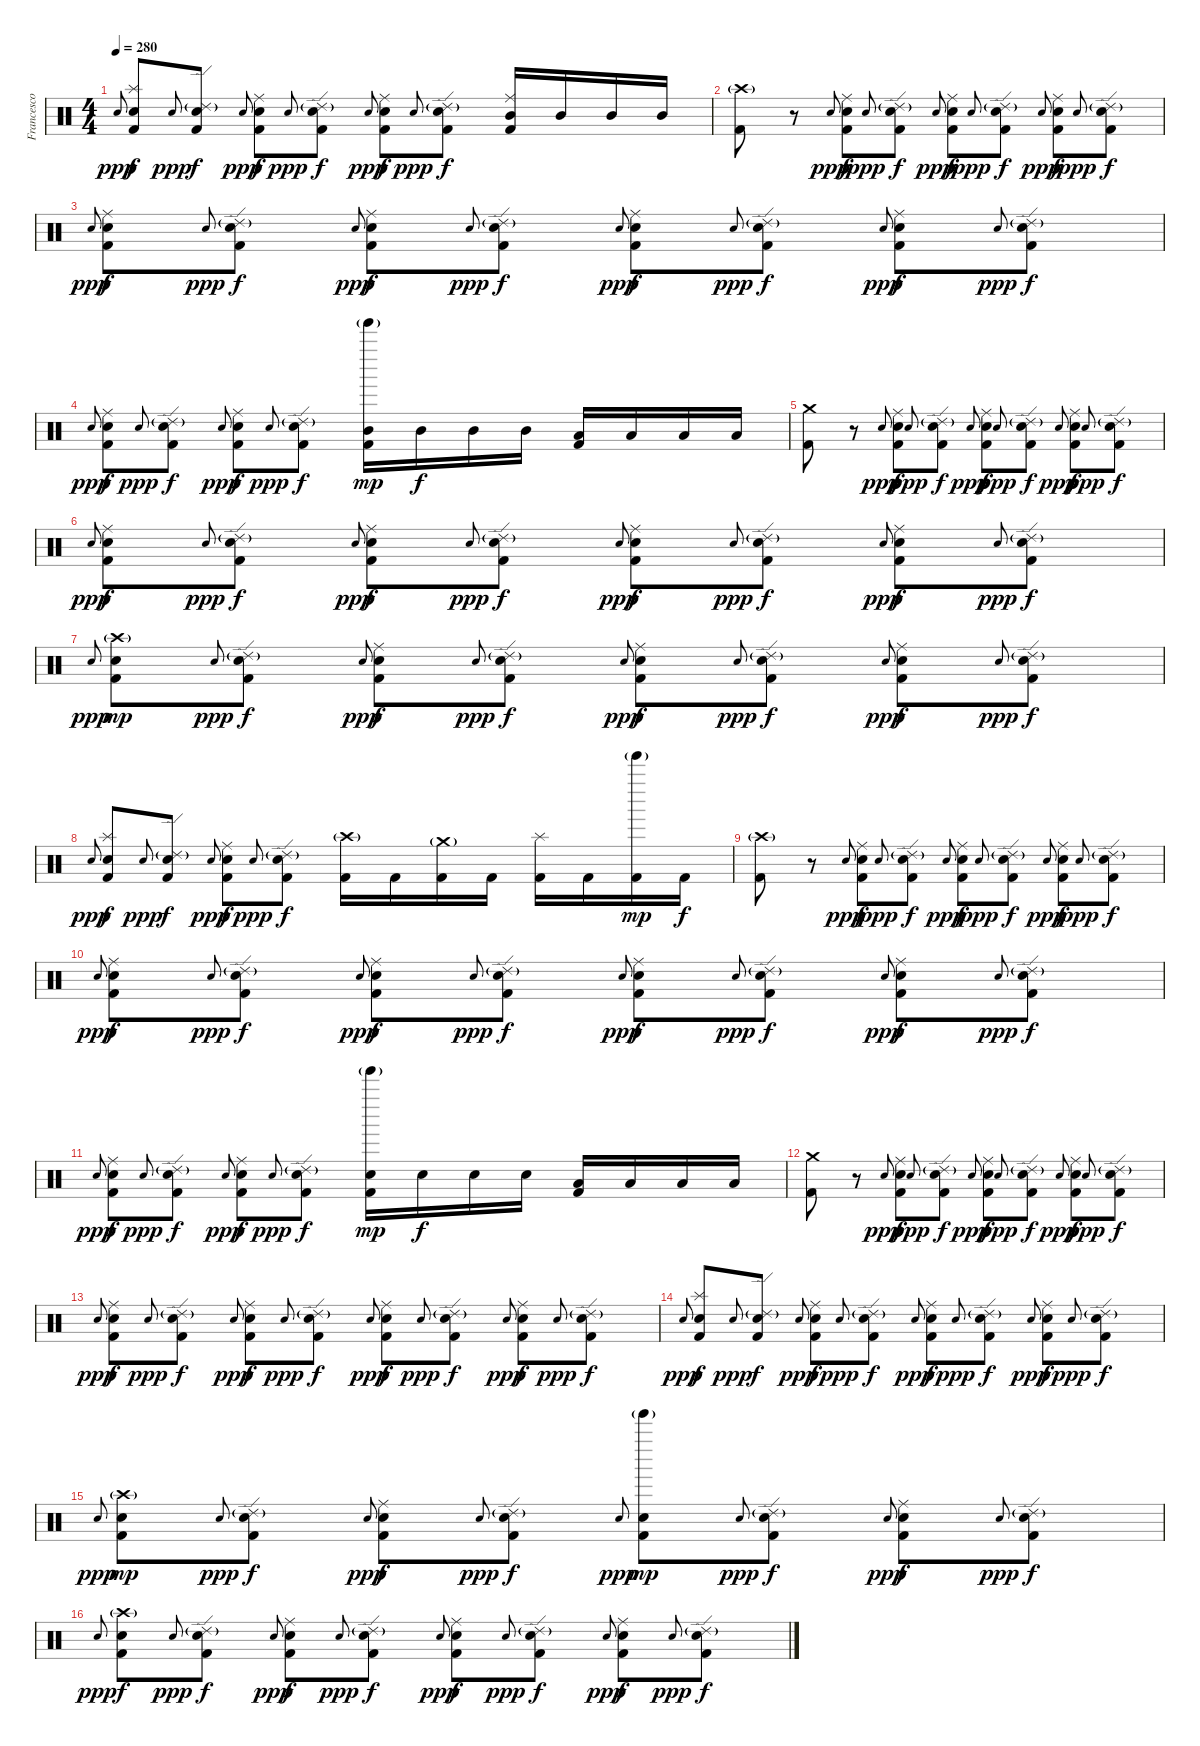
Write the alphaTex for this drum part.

\track ("Francesco Ferrini" "Francesco ") {instrument percussion}
\staff {score}
\articulation defaults
\ts (4 4)
\tempo 280
\clef neutral
\ks c "Electric Snare (hit)"{h}.8{gr onbeat dy ppp}
("Splash (hit)" "Electric Snare (hit)" "Kick (hit) 2").8{dy f} "Electric Snare (hit)"{h}.8{gr onbeat dy ppp} ("Ride (edge) 2"{g} "Electric Snare (hit)" "Kick (hit) 2").8{dy f} "Electric Snare (hit)"{h}.8{gr onbeat dy ppp} ("Ride (middle)" "Electric Snare (hit)" "Kick (hit) 2").8{dy f} "Electric Snare (hit)"{h}.8{gr onbeat dy ppp} ("Ride (edge) 2"{g} "Electric Snare (hit)" "Kick (hit) 2").8{dy f} "Electric Snare (hit)"{h}.8{gr onbeat dy ppp} ("Ride (middle)" "Electric Snare (hit)" "Kick (hit) 2").8{dy f} "Electric Snare (hit)"{h}.8{gr onbeat dy ppp} ("Ride (edge) 2"{g} "Electric Snare (hit)" "Kick (hit) 2").8{dy f} ("Ride (middle)" "Mid Tom (hit)" "Kick (hit) 2").16 "Mid Tom (hit)".16 "Mid Tom (hit)".16 "Mid Tom (hit)".16 |
("Crash high (hit)"{g} "Kick (hit) 2").8 r.8 "Electric Snare (hit)"{h}.8{gr onbeat dy ppp} ("Ride (middle)" "Electric Snare (hit)" "Kick (hit) 2").8{dy f} "Electric Snare (hit)"{h}.8{gr onbeat dy ppp} ("Ride (edge) 2"{g} "Electric Snare (hit)" "Kick (hit) 2").8{dy f} "Electric Snare (hit)"{h}.8{gr onbeat dy ppp} ("Ride (middle)" "Electric Snare (hit)" "Kick (hit) 2").8{dy f} "Electric Snare (hit)"{h}.8{gr onbeat dy ppp} ("Ride (edge) 2"{g} "Electric Snare (hit)" "Kick (hit) 2").8{dy f} "Electric Snare (hit)"{h}.8{gr onbeat dy ppp} ("Ride (middle)" "Electric Snare (hit)" "Kick (hit) 2").8{dy f} "Electric Snare (hit)"{h}.8{gr onbeat dy ppp} ("Ride (edge) 2"{g} "Electric Snare (hit)" "Kick (hit) 2").8{dy f} |
"Electric Snare (hit)"{h}.8{gr onbeat dy ppp} ("Ride (middle)" "Electric Snare (hit)" "Kick (hit) 2").8{dy f} "Electric Snare (hit)"{h}.8{gr onbeat dy ppp} ("Ride (edge) 2"{g} "Electric Snare (hit)" "Kick (hit) 2").8{dy f} "Electric Snare (hit)"{h}.8{gr onbeat dy ppp} ("Ride (middle)" "Electric Snare (hit)" "Kick (hit) 2").8{dy f} "Electric Snare (hit)"{h}.8{gr onbeat dy ppp} ("Ride (edge) 2"{g} "Electric Snare (hit)" "Kick (hit) 2").8{dy f} "Electric Snare (hit)"{h}.8{gr onbeat dy ppp} ("Ride (middle)" "Electric Snare (hit)" "Kick (hit) 2").8{dy f} "Electric Snare (hit)"{h}.8{gr onbeat dy ppp} ("Ride (edge) 2"{g} "Electric Snare (hit)" "Kick (hit) 2").8{dy f} "Electric Snare (hit)"{h}.8{gr onbeat dy ppp} ("Ride (middle)" "Electric Snare (hit)" "Kick (hit) 2").8{dy f} "Electric Snare (hit)"{h}.8{gr onbeat dy ppp} ("Ride (edge) 2"{g} "Electric Snare (hit)" "Kick (hit) 2").8{dy f} |
"Electric Snare (hit)"{h}.8{gr onbeat dy ppp} ("Ride (middle)" "Electric Snare (hit)" "Kick (hit) 2").8{dy f} "Electric Snare (hit)"{h}.8{gr onbeat dy ppp} ("Ride (edge) 2"{g} "Electric Snare (hit)" "Kick (hit) 2").8{dy f} "Electric Snare (hit)"{h}.8{gr onbeat dy ppp} ("Ride (middle)" "Electric Snare (hit)" "Kick (hit) 2").8{dy f} "Electric Snare (hit)"{h}.8{gr onbeat dy ppp} ("Ride (edge) 2"{g} "Electric Snare (hit)" "Kick (hit) 2").8{dy f} ("Tinkle Bell (hit)"{g} "Mid Tom (hit)" "Kick (hit) 2").16{dy mp} "Mid Tom (hit)".16{dy f} "Mid Tom (hit)".16 "Mid Tom (hit)".16 ("Low Tom (hit)" "Kick (hit) 2").16 "Low Tom (hit)".16 "Low Tom (hit)".16 "Low Tom (hit)".16 |
("Crash medium (hit)" "Kick (hit) 2").8 r.8 "Electric Snare (hit)"{h}.8{gr onbeat dy ppp} ("Ride (middle)" "Electric Snare (hit)" "Kick (hit) 2").8{dy f} "Electric Snare (hit)"{h}.8{gr onbeat dy ppp} ("Ride (edge) 2"{g} "Electric Snare (hit)" "Kick (hit) 2").8{dy f} "Electric Snare (hit)"{h}.8{gr onbeat dy ppp} ("Ride (middle)" "Electric Snare (hit)" "Kick (hit) 2").8{dy f} "Electric Snare (hit)"{h}.8{gr onbeat dy ppp} ("Ride (edge) 2"{g} "Electric Snare (hit)" "Kick (hit) 2").8{dy f} "Electric Snare (hit)"{h}.8{gr onbeat dy ppp} ("Ride (middle)" "Electric Snare (hit)" "Kick (hit) 2").8{dy f} "Electric Snare (hit)"{h}.8{gr onbeat dy ppp} ("Ride (edge) 2"{g} "Electric Snare (hit)" "Kick (hit) 2").8{dy f} |
"Electric Snare (hit)"{h}.8{gr onbeat dy ppp} ("Ride (middle)" "Electric Snare (hit)" "Kick (hit) 2").8{dy f} "Electric Snare (hit)"{h}.8{gr onbeat dy ppp} ("Ride (edge) 2"{g} "Electric Snare (hit)" "Kick (hit) 2").8{dy f} "Electric Snare (hit)"{h}.8{gr onbeat dy ppp} ("Ride (middle)" "Electric Snare (hit)" "Kick (hit) 2").8{dy f} "Electric Snare (hit)"{h}.8{gr onbeat dy ppp} ("Ride (edge) 2"{g} "Electric Snare (hit)" "Kick (hit) 2").8{dy f} "Electric Snare (hit)"{h}.8{gr onbeat dy ppp} ("Ride (middle)" "Electric Snare (hit)" "Kick (hit) 2").8{dy f} "Electric Snare (hit)"{h}.8{gr onbeat dy ppp} ("Ride (edge) 2"{g} "Electric Snare (hit)" "Kick (hit) 2").8{dy f} "Electric Snare (hit)"{h}.8{gr onbeat dy ppp} ("Ride (middle)" "Electric Snare (hit)" "Kick (hit) 2").8{dy f} "Electric Snare (hit)"{h}.8{gr onbeat dy ppp} ("Ride (edge) 2"{g} "Electric Snare (hit)" "Kick (hit) 2").8{dy f} |
"Electric Snare (hit)"{h}.8{gr onbeat dy ppp} ("Crash high (hit)"{g} "Electric Snare (hit)" "Kick (hit) 2").8{dy mp} "Electric Snare (hit)"{h}.8{gr onbeat dy ppp} ("Ride (edge) 2"{g} "Electric Snare (hit)" "Kick (hit) 2").8{dy f} "Electric Snare (hit)"{h}.8{gr onbeat dy ppp} ("Ride (middle)" "Electric Snare (hit)" "Kick (hit) 2").8{dy f} "Electric Snare (hit)"{h}.8{gr onbeat dy ppp} ("Ride (edge) 2"{g} "Electric Snare (hit)" "Kick (hit) 2").8{dy f} "Electric Snare (hit)"{h}.8{gr onbeat dy ppp} ("Ride (middle)" "Electric Snare (hit)" "Kick (hit) 2").8{dy f} "Electric Snare (hit)"{h}.8{gr onbeat dy ppp} ("Ride (edge) 2"{g} "Electric Snare (hit)" "Kick (hit) 2").8{dy f} "Electric Snare (hit)"{h}.8{gr onbeat dy ppp} ("Ride (middle)" "Electric Snare (hit)" "Kick (hit) 2").8{dy f} "Electric Snare (hit)"{h}.8{gr onbeat dy ppp} ("Ride (edge) 2"{g} "Electric Snare (hit)" "Kick (hit) 2").8{dy f} |
"Electric Snare (hit)"{h}.8{gr onbeat dy ppp} ("Splash (hit)" "Electric Snare (hit)" "Kick (hit) 2").8{dy f} "Electric Snare (hit)"{h}.8{gr onbeat dy ppp} ("Ride (edge) 2"{g} "Electric Snare (hit)" "Kick (hit) 2").8{dy f} "Electric Snare (hit)"{h}.8{gr onbeat dy ppp} ("Ride (middle)" "Electric Snare (hit)" "Kick (hit) 2").8{dy f} "Electric Snare (hit)"{h}.8{gr onbeat dy ppp} ("Ride (edge) 2"{g} "Electric Snare (hit)" "Kick (hit) 2").8{dy f} ("Crash high (hit)"{g} "Kick (hit) 2").16 "Kick (hit) 2".16 ("Crash medium (hit)"{g} "Kick (hit) 2").16 "Kick (hit) 2".16 ("Splash (hit)" "Kick (hit) 2").16 "Kick (hit) 2".16 ("Tinkle Bell (hit)"{g} "Kick (hit) 2").16{dy mp} "Kick (hit) 2".16{dy f} |
("Crash high (hit)"{g} "Kick (hit) 2").8 r.8 "Electric Snare (hit)"{h}.8{gr onbeat dy ppp} ("Ride (middle)" "Electric Snare (hit)" "Kick (hit) 2").8{dy f} "Electric Snare (hit)"{h}.8{gr onbeat dy ppp} ("Ride (edge) 2"{g} "Electric Snare (hit)" "Kick (hit) 2").8{dy f} "Electric Snare (hit)"{h}.8{gr onbeat dy ppp} ("Ride (middle)" "Electric Snare (hit)" "Kick (hit) 2").8{dy f} "Electric Snare (hit)"{h}.8{gr onbeat dy ppp} ("Ride (edge) 2"{g} "Electric Snare (hit)" "Kick (hit) 2").8{dy f} "Electric Snare (hit)"{h}.8{gr onbeat dy ppp} ("Ride (middle)" "Electric Snare (hit)" "Kick (hit) 2").8{dy f} "Electric Snare (hit)"{h}.8{gr onbeat dy ppp} ("Ride (edge) 2"{g} "Electric Snare (hit)" "Kick (hit) 2").8{dy f} |
"Electric Snare (hit)"{h}.8{gr onbeat dy ppp} ("Ride (middle)" "Electric Snare (hit)" "Kick (hit) 2").8{dy f} "Electric Snare (hit)"{h}.8{gr onbeat dy ppp} ("Ride (edge) 2"{g} "Electric Snare (hit)" "Kick (hit) 2").8{dy f} "Electric Snare (hit)"{h}.8{gr onbeat dy ppp} ("Ride (middle)" "Electric Snare (hit)" "Kick (hit) 2").8{dy f} "Electric Snare (hit)"{h}.8{gr onbeat dy ppp} ("Ride (edge) 2"{g} "Electric Snare (hit)" "Kick (hit) 2").8{dy f} "Electric Snare (hit)"{h}.8{gr onbeat dy ppp} ("Ride (middle)" "Electric Snare (hit)" "Kick (hit) 2").8{dy f} "Electric Snare (hit)"{h}.8{gr onbeat dy ppp} ("Ride (edge) 2"{g} "Electric Snare (hit)" "Kick (hit) 2").8{dy f} "Electric Snare (hit)"{h}.8{gr onbeat dy ppp} ("Ride (middle)" "Electric Snare (hit)" "Kick (hit) 2").8{dy f} "Electric Snare (hit)"{h}.8{gr onbeat dy ppp} ("Ride (edge) 2"{g} "Electric Snare (hit)" "Kick (hit) 2").8{dy f} |
"Electric Snare (hit)"{h}.8{gr onbeat dy ppp} ("Ride (middle)" "Electric Snare (hit)" "Kick (hit) 2").8{dy f} "Electric Snare (hit)"{h}.8{gr onbeat dy ppp} ("Ride (edge) 2"{g} "Electric Snare (hit)" "Kick (hit) 2").8{dy f} "Electric Snare (hit)"{h}.8{gr onbeat dy ppp} ("Ride (middle)" "Electric Snare (hit)" "Kick (hit) 2").8{dy f} "Electric Snare (hit)"{h}.8{gr onbeat dy ppp} ("Ride (edge) 2"{g} "Electric Snare (hit)" "Kick (hit) 2").8{dy f} ("Tinkle Bell (hit)"{g} "Electric Snare (hit)" "Kick (hit) 2").16{dy mp} "Electric Snare (hit)".16{dy f} "Electric Snare (hit)".16 "Electric Snare (hit)".16 ("Low Tom (hit)" "Kick (hit) 2").16 "Low Tom (hit)".16 "Low Tom (hit)".16 "Low Tom (hit)".16 |
("Crash medium (hit)" "Kick (hit) 2").8 r.8 "Electric Snare (hit)"{h}.8{gr onbeat dy ppp} ("Ride (middle)" "Electric Snare (hit)" "Kick (hit) 2").8{dy f} "Electric Snare (hit)"{h}.8{gr onbeat dy ppp} ("Ride (edge) 2"{g} "Electric Snare (hit)" "Kick (hit) 2").8{dy f} "Electric Snare (hit)"{h}.8{gr onbeat dy ppp} ("Ride (middle)" "Electric Snare (hit)" "Kick (hit) 2").8{dy f} "Electric Snare (hit)"{h}.8{gr onbeat dy ppp} ("Ride (edge) 2"{g} "Electric Snare (hit)" "Kick (hit) 2").8{dy f} "Electric Snare (hit)"{h}.8{gr onbeat dy ppp} ("Ride (middle)" "Electric Snare (hit)" "Kick (hit) 2").8{dy f} "Electric Snare (hit)"{h}.8{gr onbeat dy ppp} ("Ride (edge) 2"{g} "Electric Snare (hit)" "Kick (hit) 2").8{dy f} |
"Electric Snare (hit)"{h}.8{gr onbeat dy ppp} ("Ride (middle)" "Electric Snare (hit)" "Kick (hit) 2").8{dy f} "Electric Snare (hit)"{h}.8{gr onbeat dy ppp} ("Ride (edge) 2"{g} "Electric Snare (hit)" "Kick (hit) 2").8{dy f} "Electric Snare (hit)"{h}.8{gr onbeat dy ppp} ("Ride (middle)" "Electric Snare (hit)" "Kick (hit) 2").8{dy f} "Electric Snare (hit)"{h}.8{gr onbeat dy ppp} ("Ride (edge) 2"{g} "Electric Snare (hit)" "Kick (hit) 2").8{dy f} "Electric Snare (hit)"{h}.8{gr onbeat dy ppp} ("Ride (middle)" "Electric Snare (hit)" "Kick (hit) 2").8{dy f} "Electric Snare (hit)"{h}.8{gr onbeat dy ppp} ("Ride (edge) 2"{g} "Electric Snare (hit)" "Kick (hit) 2").8{dy f} "Electric Snare (hit)"{h}.8{gr onbeat dy ppp} ("Ride (middle)" "Electric Snare (hit)" "Kick (hit) 2").8{dy f} "Electric Snare (hit)"{h}.8{gr onbeat dy ppp} ("Ride (edge) 2"{g} "Electric Snare (hit)" "Kick (hit) 2").8{dy f} |
"Electric Snare (hit)"{h}.8{gr onbeat dy ppp} ("Splash (hit)" "Electric Snare (hit)" "Kick (hit) 2").8{dy f} "Electric Snare (hit)"{h}.8{gr onbeat dy ppp} ("Ride (edge) 2"{g} "Electric Snare (hit)" "Kick (hit) 2").8{dy f} "Electric Snare (hit)"{h}.8{gr onbeat dy ppp} ("Ride (middle)" "Electric Snare (hit)" "Kick (hit) 2").8{dy f} "Electric Snare (hit)"{h}.8{gr onbeat dy ppp} ("Ride (edge) 2"{g} "Electric Snare (hit)" "Kick (hit) 2").8{dy f} "Electric Snare (hit)"{h}.8{gr onbeat dy ppp} ("Ride (middle)" "Electric Snare (hit)" "Kick (hit) 2").8{dy f} "Electric Snare (hit)"{h}.8{gr onbeat dy ppp} ("Ride (edge) 2"{g} "Electric Snare (hit)" "Kick (hit) 2").8{dy f} "Electric Snare (hit)"{h}.8{gr onbeat dy ppp} ("Ride (middle)" "Electric Snare (hit)" "Kick (hit) 2").8{dy f} "Electric Snare (hit)"{h}.8{gr onbeat dy ppp} ("Ride (edge) 2"{g} "Electric Snare (hit)" "Kick (hit) 2").8{dy f} |
"Electric Snare (hit)"{h}.8{gr onbeat dy ppp} ("Crash high (hit)"{g} "Electric Snare (hit)" "Kick (hit) 2").8{dy mp} "Electric Snare (hit)"{h}.8{gr onbeat dy ppp} ("Ride (edge) 2"{g} "Electric Snare (hit)" "Kick (hit) 2").8{dy f} "Electric Snare (hit)"{h}.8{gr onbeat dy ppp} ("Ride (middle)" "Electric Snare (hit)" "Kick (hit) 2").8{dy f} "Electric Snare (hit)"{h}.8{gr onbeat dy ppp} ("Ride (edge) 2"{g} "Electric Snare (hit)" "Kick (hit) 2").8{dy f} "Electric Snare (hit)"{h}.8{gr onbeat dy ppp} ("Tinkle Bell (hit)"{g} "Electric Snare (hit)" "Kick (hit) 2").8{dy mp} "Electric Snare (hit)"{h}.8{gr onbeat dy ppp} ("Ride (edge) 2"{g} "Electric Snare (hit)" "Kick (hit) 2").8{dy f} "Electric Snare (hit)"{h}.8{gr onbeat dy ppp} ("Ride (middle)" "Electric Snare (hit)" "Kick (hit) 2").8{dy f} "Electric Snare (hit)"{h}.8{gr onbeat dy ppp} ("Ride (edge) 2"{g} "Electric Snare (hit)" "Kick (hit) 2").8{dy f} |
"Electric Snare (hit)"{h}.8{gr onbeat dy ppp} ("Crash high (hit)"{g} "Electric Snare (hit)" "Kick (hit) 2").8{dy f} "Electric Snare (hit)"{h}.8{gr onbeat dy ppp} ("Ride (edge) 2"{g} "Electric Snare (hit)" "Kick (hit) 2").8{dy f} "Electric Snare (hit)"{h}.8{gr onbeat dy ppp} ("Ride (middle)" "Electric Snare (hit)" "Kick (hit) 2").8{dy f} "Electric Snare (hit)"{h}.8{gr onbeat dy ppp} ("Ride (edge) 2"{g} "Electric Snare (hit)" "Kick (hit) 2").8{dy f} "Electric Snare (hit)"{h}.8{gr onbeat dy ppp} ("Ride (middle)" "Electric Snare (hit)" "Kick (hit) 2").8{dy f} "Electric Snare (hit)"{h}.8{gr onbeat dy ppp} ("Ride (edge) 2"{g} "Electric Snare (hit)" "Kick (hit) 2").8{dy f} "Electric Snare (hit)"{h}.8{gr onbeat dy ppp} ("Ride (middle)" "Electric Snare (hit)" "Kick (hit) 2").8{dy f} "Electric Snare (hit)"{h}.8{gr onbeat dy ppp} ("Ride (edge) 2"{g} "Electric Snare (hit)" "Kick (hit) 2").8{dy f}
